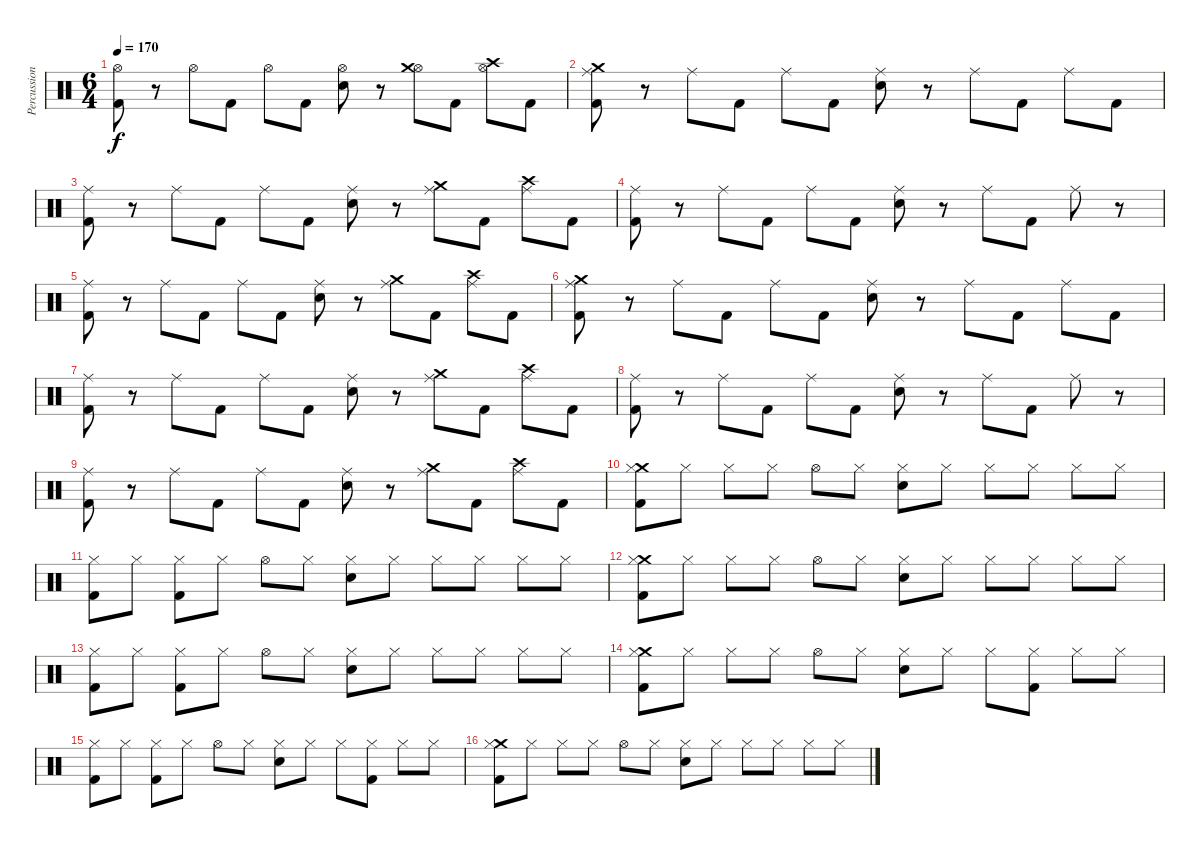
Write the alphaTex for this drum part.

\track ("Percussion" "Percussion") {instrument percussion}
\staff {score}
\articulation defaults
\ts (6 4)
\tempo 170
\clef neutral
\ks c
("Hi-Hat (open)" "Kick (hit) 2").8{dy f} r.8 "Hi-Hat (open)".8 "Kick (hit) 2".8 "Hi-Hat (open)".8 "Kick (hit) 2".8 ("Hi-Hat (open)" "Electric Snare (hit)").8 r.8 ("Hi-Hat (open)" "Crash medium (hit)").8 "Kick (hit) 2".8 ("Hi-Hat (open)" "Crash high (hit)").8 "Kick (hit) 2".8 |
("Crash medium (hit)" "Ride (middle)" "Kick (hit) 2").8 r.8 "Ride (middle)".8 "Kick (hit) 2".8 "Ride (middle)".8 "Kick (hit) 2".8 ("Ride (middle)" "Electric Snare (hit)").8 r.8 "Ride (middle)".8 "Kick (hit) 2".8 "Ride (middle)".8 "Kick (hit) 2".8 |
("Ride (middle)" "Kick (hit) 2").8 r.8 "Ride (middle)".8 "Kick (hit) 2".8 "Ride (middle)".8 "Kick (hit) 2".8 ("Ride (middle)" "Electric Snare (hit)").8 r.8 ("Ride (middle)" "Crash medium (hit)").8 "Kick (hit) 2".8 ("Ride (middle)" "Crash high (hit)").8 "Kick (hit) 2".8 |
("Ride (middle)" "Kick (hit) 2").8 r.8 "Ride (middle)".8 "Kick (hit) 2".8 "Ride (middle)".8 "Kick (hit) 2".8 ("Ride (middle)" "Electric Snare (hit)").8 r.8 "Ride (middle)".8 "Kick (hit) 2".8 "Ride (middle)".8 r.8 |
("Ride (middle)" "Kick (hit) 2").8 r.8 "Ride (middle)".8 "Kick (hit) 2".8 "Ride (middle)".8 "Kick (hit) 2".8 ("Ride (middle)" "Electric Snare (hit)").8 r.8 ("Ride (middle)" "Crash medium (hit)").8 "Kick (hit) 2".8 ("Ride (middle)" "Crash high (hit)").8 "Kick (hit) 2".8 |
("Crash medium (hit)" "Ride (middle)" "Kick (hit) 2").8 r.8 "Ride (middle)".8 "Kick (hit) 2".8 "Ride (middle)".8 "Kick (hit) 2".8 ("Ride (middle)" "Electric Snare (hit)").8 r.8 "Ride (middle)".8 "Kick (hit) 2".8 "Ride (middle)".8 "Kick (hit) 2".8 |
("Ride (middle)" "Kick (hit) 2").8 r.8 "Ride (middle)".8 "Kick (hit) 2".8 "Ride (middle)".8 "Kick (hit) 2".8 ("Ride (middle)" "Electric Snare (hit)").8 r.8 ("Ride (middle)" "Crash medium (hit)").8 "Kick (hit) 2".8 ("Ride (middle)" "Crash high (hit)").8 "Kick (hit) 2".8 |
("Ride (middle)" "Kick (hit) 2").8 r.8 "Ride (middle)".8 "Kick (hit) 2".8 "Ride (middle)".8 "Kick (hit) 2".8 ("Ride (middle)" "Electric Snare (hit)").8 r.8 "Ride (middle)".8 "Kick (hit) 2".8 "Ride (middle)".8 r.8 |
("Ride (middle)" "Kick (hit) 2").8 r.8 "Ride (middle)".8 "Kick (hit) 2".8 "Ride (middle)".8 "Kick (hit) 2".8 ("Ride (middle)" "Electric Snare (hit)").8 r.8 ("Ride (middle)" "Crash medium (hit)").8 "Kick (hit) 2".8 ("Ride (middle)" "Crash high (hit)").8 "Kick (hit) 2".8 |
("Crash medium (hit)" "Hi-Hat (closed)" "Kick (hit) 2").8 "Hi-Hat (closed)".8 "Hi-Hat (closed)".8 "Hi-Hat (closed)".8 "Hi-Hat (open)".8 "Hi-Hat (closed)".8 ("Hi-Hat (closed)" "Electric Snare (hit)").8 "Hi-Hat (closed)".8 "Hi-Hat (closed)".8 "Hi-Hat (closed)".8 "Hi-Hat (closed)".8 "Hi-Hat (closed)".8 |
("Hi-Hat (closed)" "Kick (hit) 2").8 "Hi-Hat (closed)".8 ("Hi-Hat (closed)" "Kick (hit) 2").8 "Hi-Hat (closed)".8 "Hi-Hat (open)".8 "Hi-Hat (closed)".8 ("Hi-Hat (closed)" "Electric Snare (hit)").8 "Hi-Hat (closed)".8 "Hi-Hat (closed)".8 "Hi-Hat (closed)".8 "Hi-Hat (closed)".8 "Hi-Hat (closed)".8 |
("Crash medium (hit)" "Hi-Hat (closed)" "Kick (hit) 2").8 "Hi-Hat (closed)".8 "Hi-Hat (closed)".8 "Hi-Hat (closed)".8 "Hi-Hat (open)".8 "Hi-Hat (closed)".8 ("Hi-Hat (closed)" "Electric Snare (hit)").8 "Hi-Hat (closed)".8 "Hi-Hat (closed)".8 "Hi-Hat (closed)".8 "Hi-Hat (closed)".8 "Hi-Hat (closed)".8 |
("Hi-Hat (closed)" "Kick (hit) 2").8 "Hi-Hat (closed)".8 ("Hi-Hat (closed)" "Kick (hit) 2").8 "Hi-Hat (closed)".8 "Hi-Hat (open)".8 "Hi-Hat (closed)".8 ("Hi-Hat (closed)" "Electric Snare (hit)").8 "Hi-Hat (closed)".8 "Hi-Hat (closed)".8 "Hi-Hat (closed)".8 "Hi-Hat (closed)".8 "Hi-Hat (closed)".8 |
("Crash medium (hit)" "Hi-Hat (closed)" "Kick (hit) 2").8 "Hi-Hat (closed)".8 "Hi-Hat (closed)".8 "Hi-Hat (closed)".8 "Hi-Hat (open)".8 "Hi-Hat (closed)".8 ("Hi-Hat (closed)" "Electric Snare (hit)").8 "Hi-Hat (closed)".8 "Hi-Hat (closed)".8 ("Hi-Hat (closed)" "Kick (hit) 2").8 "Hi-Hat (closed)".8 "Hi-Hat (closed)".8 |
("Hi-Hat (closed)" "Kick (hit) 2").8 "Hi-Hat (closed)".8 ("Hi-Hat (closed)" "Kick (hit) 2").8 "Hi-Hat (closed)".8 "Hi-Hat (open)".8 "Hi-Hat (closed)".8 ("Hi-Hat (closed)" "Electric Snare (hit)").8 "Hi-Hat (closed)".8 "Hi-Hat (closed)".8 ("Hi-Hat (closed)" "Kick (hit) 2").8 "Hi-Hat (closed)".8 "Hi-Hat (closed)".8 |
("Crash medium (hit)" "Hi-Hat (closed)" "Kick (hit) 2").8 "Hi-Hat (closed)".8 "Hi-Hat (closed)".8 "Hi-Hat (closed)".8 "Hi-Hat (open)".8 "Hi-Hat (closed)".8 ("Hi-Hat (closed)" "Electric Snare (hit)").8 "Hi-Hat (closed)".8 "Hi-Hat (closed)".8 "Hi-Hat (closed)".8 "Hi-Hat (closed)".8 "Hi-Hat (closed)".8
